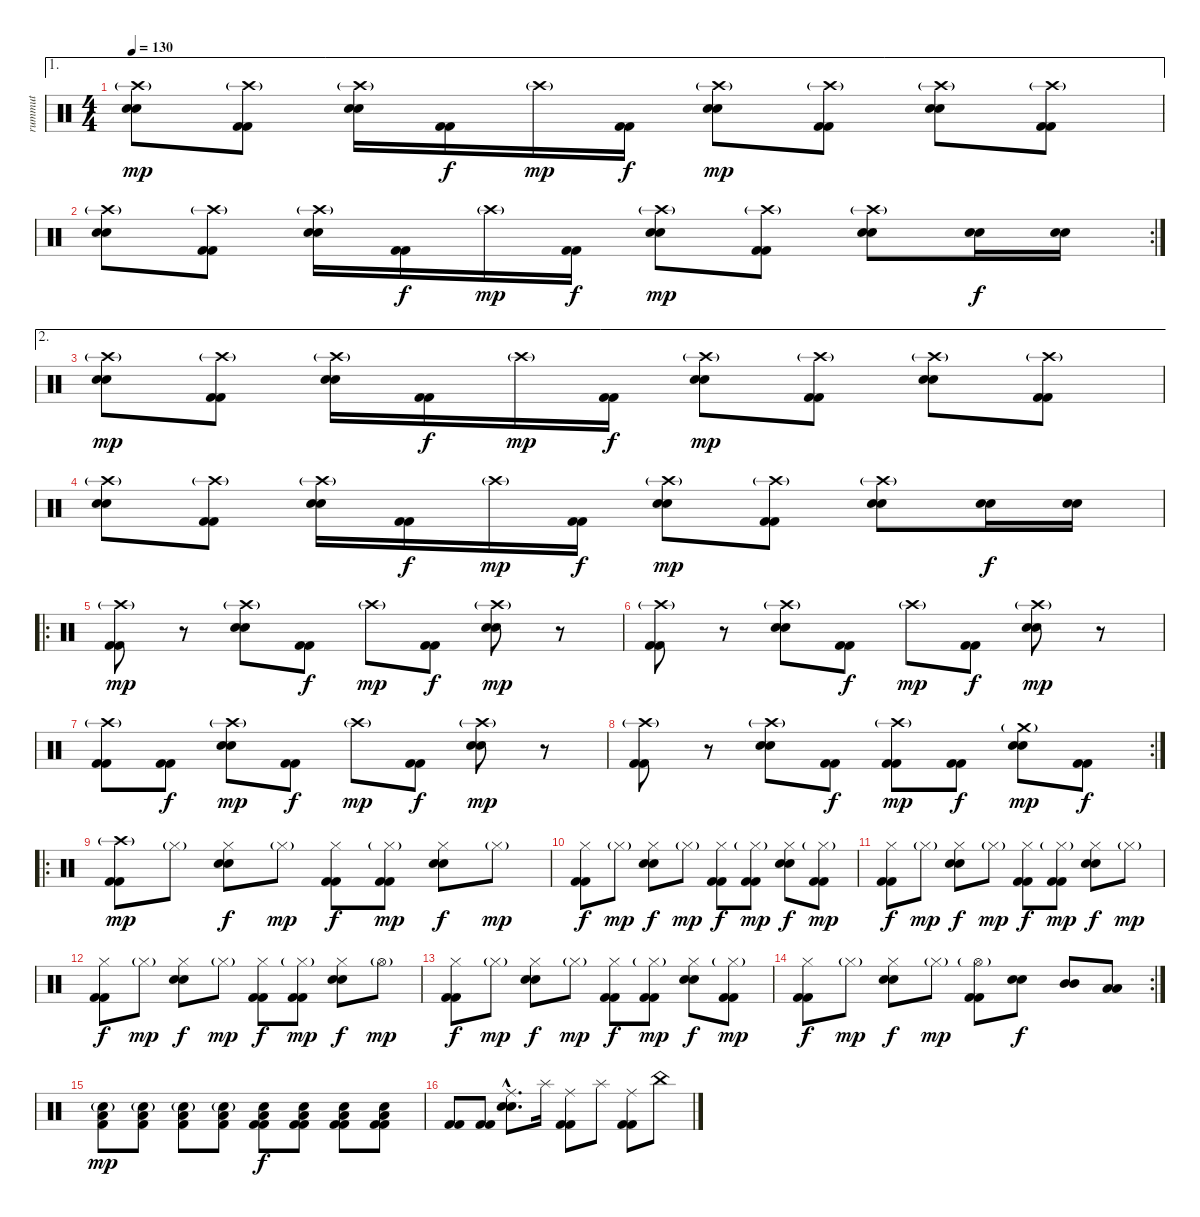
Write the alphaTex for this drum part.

\track ("rummut" "rummut") {instrument percussion}
\staff {score}
\articulation defaults
\ae 1
\ts (4 4)
\tempo 130
\clef neutral
\ks c
("Crash high (hit)"{g} "Electric Snare (hit)" "Electric Snare (hit)").8{dy mp} ("Crash high (hit)"{g} "Kick (hit) 2" "Kick (hit) 2").8 ("Crash high (hit)"{g} "Electric Snare (hit)" "Electric Snare (hit)").16 ("Kick (hit) 2" "Kick (hit) 2").16{dy f} "Crash high (hit)"{g}.16{dy mp} ("Kick (hit) 2" "Kick (hit) 2").16{dy f} ("Crash high (hit)"{g} "Electric Snare (hit)" "Electric Snare (hit)").8{dy mp} ("Crash high (hit)"{g} "Kick (hit) 2" "Kick (hit) 2").8 ("Crash high (hit)"{g} "Electric Snare (hit)" "Electric Snare (hit)").8 ("Crash high (hit)"{g} "Kick (hit) 2" "Kick (hit) 2").8 |
\rc 2
("Crash high (hit)"{g} "Electric Snare (hit)" "Electric Snare (hit)").8 ("Crash high (hit)"{g} "Kick (hit) 2" "Kick (hit) 2").8 ("Crash high (hit)"{g} "Electric Snare (hit)" "Electric Snare (hit)").16 ("Kick (hit) 2" "Kick (hit) 2").16{dy f} "Crash high (hit)"{g}.16{dy mp} ("Kick (hit) 2" "Kick (hit) 2").16{dy f} ("Crash high (hit)"{g} "Electric Snare (hit)" "Electric Snare (hit)").8{dy mp} ("Crash high (hit)"{g} "Kick (hit) 2" "Kick (hit) 2").8 ("Crash high (hit)"{g} "Electric Snare (hit)" "Electric Snare (hit)").8 ("Electric Snare (hit)" "Electric Snare (hit)").16{dy f} ("Electric Snare (hit)" "Electric Snare (hit)").16 |
\ae 2
("Crash high (hit)"{g} "Electric Snare (hit)" "Electric Snare (hit)").8{dy mp} ("Crash high (hit)"{g} "Kick (hit) 2" "Kick (hit) 2").8 ("Crash high (hit)"{g} "Electric Snare (hit)" "Electric Snare (hit)").16 ("Kick (hit) 2" "Kick (hit) 2").16{dy f} "Crash high (hit)"{g}.16{dy mp} ("Kick (hit) 2" "Kick (hit) 2").16{dy f} ("Crash high (hit)"{g} "Electric Snare (hit)" "Electric Snare (hit)").8{dy mp} ("Crash high (hit)"{g} "Kick (hit) 2" "Kick (hit) 2").8 ("Crash high (hit)"{g} "Electric Snare (hit)" "Electric Snare (hit)").8 ("Crash high (hit)"{g} "Kick (hit) 2" "Kick (hit) 2").8 |
("Crash high (hit)"{g} "Electric Snare (hit)" "Electric Snare (hit)").8 ("Crash high (hit)"{g} "Kick (hit) 2" "Kick (hit) 2").8 ("Crash high (hit)"{g} "Electric Snare (hit)" "Electric Snare (hit)").16 ("Kick (hit) 2" "Kick (hit) 2").16{dy f} "Crash high (hit)"{g}.16{dy mp} ("Kick (hit) 2" "Kick (hit) 2").16{dy f} ("Crash high (hit)"{g} "Electric Snare (hit)" "Electric Snare (hit)").8{dy mp} ("Crash high (hit)"{g} "Kick (hit) 2" "Kick (hit) 2").8 ("Crash high (hit)"{g} "Electric Snare (hit)" "Electric Snare (hit)").8 ("Electric Snare (hit)" "Electric Snare (hit)").16{dy f} ("Electric Snare (hit)" "Electric Snare (hit)").16 |
\ro
("Crash high (hit)"{g} "Kick (hit) 2" "Kick (hit) 2").8{dy mp} r.8 ("Crash high (hit)"{g} "Electric Snare (hit)" "Electric Snare (hit)").8 ("Kick (hit) 2" "Kick (hit) 2").8{dy f} "Crash high (hit)"{g}.8{dy mp} ("Kick (hit) 2" "Kick (hit) 2").8{dy f} ("Crash high (hit)"{g} "Electric Snare (hit)" "Electric Snare (hit)").8{dy mp} r.8 |
("Crash high (hit)"{g} "Kick (hit) 2" "Kick (hit) 2").8 r.8 ("Crash high (hit)"{g} "Electric Snare (hit)" "Electric Snare (hit)").8 ("Kick (hit) 2" "Kick (hit) 2").8{dy f} "Crash high (hit)"{g}.8{dy mp} ("Kick (hit) 2" "Kick (hit) 2").8{dy f} ("Crash high (hit)"{g} "Electric Snare (hit)" "Electric Snare (hit)").8{dy mp} r.8 |
("Crash high (hit)"{g} "Kick (hit) 2" "Kick (hit) 2").8 ("Kick (hit) 2" "Kick (hit) 2").8{dy f} ("Crash high (hit)"{g} "Electric Snare (hit)" "Electric Snare (hit)").8{dy mp} ("Kick (hit) 2" "Kick (hit) 2").8{dy f} "Crash high (hit)"{g}.8{dy mp} ("Kick (hit) 2" "Kick (hit) 2").8{dy f} ("Crash high (hit)"{g} "Electric Snare (hit)" "Electric Snare (hit)").8{dy mp} r.8 |
\rc 2
("Crash high (hit)"{g} "Kick (hit) 2" "Kick (hit) 2").8 r.8 ("Crash high (hit)"{g} "Electric Snare (hit)" "Electric Snare (hit)").8 ("Kick (hit) 2" "Kick (hit) 2").8{dy f} ("Crash high (hit)"{g} "Kick (hit) 2" "Kick (hit) 2").8{dy mp} ("Kick (hit) 2" "Kick (hit) 2").8{dy f} ("Crash medium (hit)"{g} "Electric Snare (hit)" "Electric Snare (hit)").8{dy mp} ("Kick (hit) 2" "Kick (hit) 2").8{dy f} |
\ro
("Crash high (hit)"{g} "Kick (hit) 2" "Kick (hit) 2").8{dy mp} "Hi-Hat (closed)"{g}.8 ("Hi-Hat (closed)" "Electric Snare (hit)" "Electric Snare (hit)").8{dy f} "Hi-Hat (closed)"{g}.8{dy mp} ("Hi-Hat (closed)" "Kick (hit) 2" "Kick (hit) 2").8{dy f} ("Hi-Hat (closed)"{g} "Kick (hit) 2" "Kick (hit) 2").8{dy mp} ("Hi-Hat (closed)" "Electric Snare (hit)" "Electric Snare (hit)").8{dy f} "Hi-Hat (closed)"{g}.8{dy mp} |
("Hi-Hat (closed)" "Kick (hit) 2" "Kick (hit) 2").8{dy f} "Hi-Hat (closed)"{g}.8{dy mp} ("Hi-Hat (closed)" "Electric Snare (hit)" "Electric Snare (hit)").8{dy f} "Hi-Hat (closed)"{g}.8{dy mp} ("Hi-Hat (closed)" "Kick (hit) 2" "Kick (hit) 2").8{dy f} ("Hi-Hat (closed)"{g} "Kick (hit) 2" "Kick (hit) 2").8{dy mp} ("Hi-Hat (closed)" "Electric Snare (hit)" "Electric Snare (hit)").8{dy f} ("Hi-Hat (closed)"{g} "Kick (hit) 2" "Kick (hit) 2").8{dy mp} |
("Hi-Hat (closed)" "Kick (hit) 2" "Kick (hit) 2").8{dy f} "Hi-Hat (closed)"{g}.8{dy mp} ("Hi-Hat (closed)" "Electric Snare (hit)" "Electric Snare (hit)").8{dy f} "Hi-Hat (closed)"{g}.8{dy mp} ("Hi-Hat (closed)" "Kick (hit) 2" "Kick (hit) 2").8{dy f} ("Hi-Hat (closed)"{g} "Kick (hit) 2" "Kick (hit) 2").8{dy mp} ("Hi-Hat (closed)" "Electric Snare (hit)" "Electric Snare (hit)").8{dy f} "Hi-Hat (closed)"{g}.8{dy mp} |
("Hi-Hat (closed)" "Kick (hit) 2" "Kick (hit) 2").8{dy f} "Hi-Hat (closed)"{g}.8{dy mp} ("Hi-Hat (closed)" "Electric Snare (hit)" "Electric Snare (hit)").8{dy f} "Hi-Hat (closed)"{g}.8{dy mp} ("Hi-Hat (closed)" "Kick (hit) 2" "Kick (hit) 2").8{dy f} ("Hi-Hat (closed)"{g} "Kick (hit) 2" "Kick (hit) 2").8{dy mp} ("Hi-Hat (closed)" "Electric Snare (hit)" "Electric Snare (hit)").8{dy f} "Hi-Hat (open)"{g}.8{dy mp} |
("Hi-Hat (closed)" "Kick (hit) 2" "Kick (hit) 2").8{dy f} "Hi-Hat (closed)"{g}.8{dy mp} ("Hi-Hat (closed)" "Electric Snare (hit)" "Electric Snare (hit)").8{dy f} "Hi-Hat (closed)"{g}.8{dy mp} ("Hi-Hat (closed)" "Kick (hit) 2" "Kick (hit) 2").8{dy f} ("Hi-Hat (closed)"{g} "Kick (hit) 2" "Kick (hit) 2").8{dy mp} ("Hi-Hat (closed)" "Electric Snare (hit)" "Electric Snare (hit)").8{dy f} ("Hi-Hat (closed)"{g} "Kick (hit) 2" "Kick (hit) 2").8{dy mp} |
\rc 2
("Hi-Hat (closed)" "Kick (hit) 2" "Kick (hit) 2").8{dy f} "Hi-Hat (closed)"{g}.8{dy mp} ("Hi-Hat (closed)" "Electric Snare (hit)" "Electric Snare (hit)").8{dy f} "Hi-Hat (closed)"{g}.8{dy mp} ("Hi-Hat (open)"{g} "Kick (hit) 2" "Kick (hit) 2").8 ("Electric Snare (hit)" "Electric Snare (hit)").8{dy f} ("Mid Tom (hit)" "Mid Tom (hit)").8 ("Low Tom (hit)" "Low Tom (hit)").8 |
("Electric Snare (hit)"{g} "Low Tom (hit)" "Kick (hit) 2").8{dy mp} ("Electric Snare (hit)"{g} "Low Tom (hit)" "Kick (hit) 2").8 ("Electric Snare (hit)"{g} "Low Tom (hit)" "Kick (hit) 2").8 ("Electric Snare (hit)"{g} "Low Tom (hit)" "Kick (hit) 2").8 ("Electric Snare (hit)" "Low Tom (hit)" "Kick (hit) 2" "Kick (hit) 2").8{dy f} ("Electric Snare (hit)" "Low Tom (hit)" "Kick (hit) 2" "Kick (hit) 2").8 ("Electric Snare (hit)" "Low Tom (hit)" "Kick (hit) 2" "Kick (hit) 2").8 ("Electric Snare (hit)" "Low Tom (hit)" "Kick (hit) 2" "Kick (hit) 2").8 |
("Kick (hit) 2" "Kick (hit) 2").8 ("Kick (hit) 2" "Kick (hit) 2").8 ("Ride (middle)"{hac} "Electric Snare (hit)"{hac} "Electric Snare (hit)"{hac}).8{d} "Splash (hit)".16 ("Ride (middle)" "Kick (hit) 2" "Kick (hit) 2").8 "Splash (hit)".8 ("Ride (middle)" "Kick (hit) 2" "Kick (hit) 2").8 "China (hit)".8
